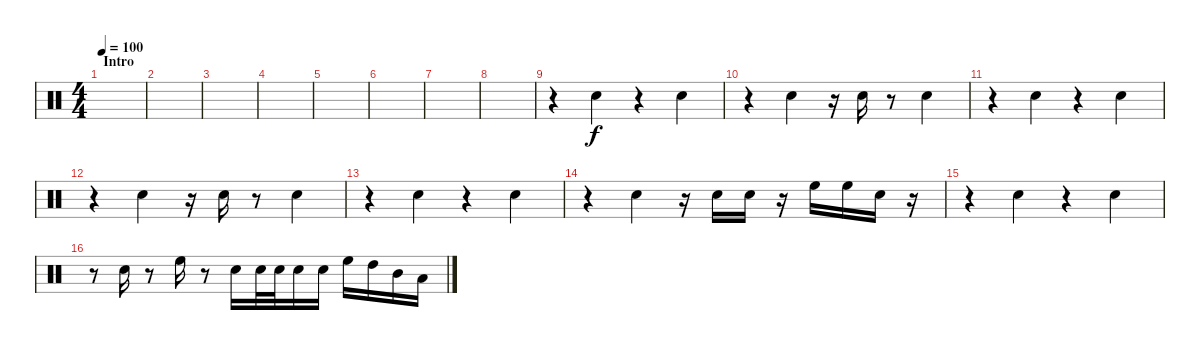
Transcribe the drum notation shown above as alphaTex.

\track "" {instrument percussion}
\staff {score}
\articulation defaults
\ts (4 4)
\section ("" "Intro")
\tempo 100
\clef neutral
\ks c
|
|
|
|
|
|
|
|
r.4 "Electric Snare (hit)".4 r.4 "Electric Snare (hit)".4 |
r.4 "Electric Snare (hit)".4 r.16 "Electric Snare (hit)".16 r.8 "Electric Snare (hit)".4 |
r.4 "Electric Snare (hit)".4 r.4 "Electric Snare (hit)".4 |
r.4 "Electric Snare (hit)".4 r.16 "Electric Snare (hit)".16 r.8 "Electric Snare (hit)".4 |
r.4 "Electric Snare (hit)".4 r.4 "Electric Snare (hit)".4 |
r.4 "Electric Snare (hit)".4 r.16 "Electric Snare (hit)".16 "Electric Snare (hit)".16 r.16 "High Floor Tom (hit)".16 "High Floor Tom (hit)".16 "Electric Snare (hit)".16 r.16 |
r.4 "Electric Snare (hit)".4 r.4 "Electric Snare (hit)".4 |
r.8 "Electric Snare (hit)".16 r.8 "High Floor Tom (hit)".16 r.8 "Electric Snare (hit)".16 "Electric Snare (hit)".32 "Electric Snare (hit)".32 "Electric Snare (hit)".16 "Electric Snare (hit)".16 "High Floor Tom (hit)".16 "High Tom (hit)".16 "Mid Tom (hit)".16 "Low Tom (hit)".16
